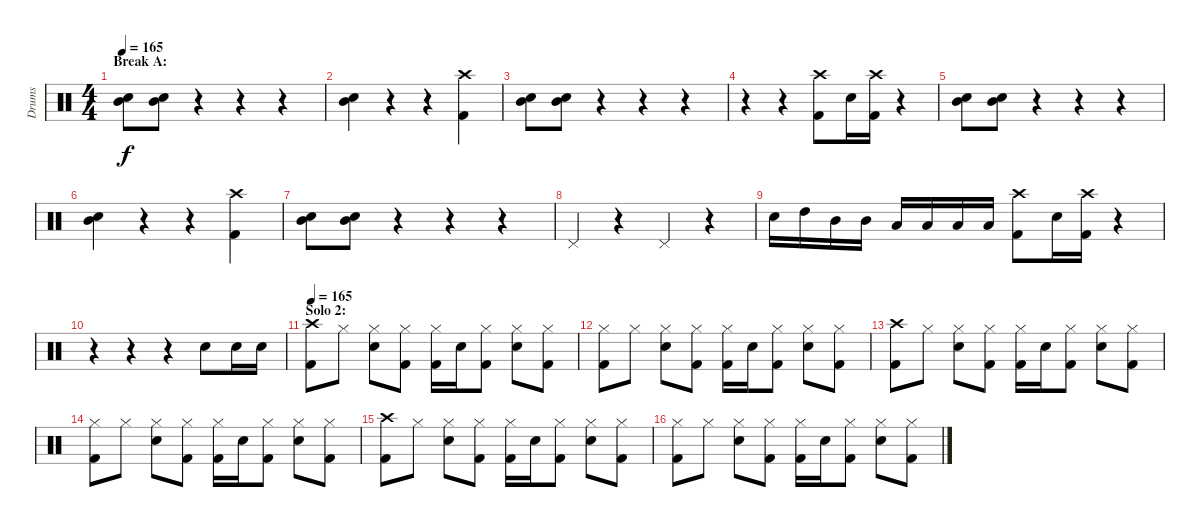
\track ("Drums" "Drums") {instrument percussion}
\staff {score}
\articulation defaults
\ts (4 4)
\section ("" "Break A:")
\tempo 165
\clef neutral
\ks c
("Mid Tom (hit)" "Snare (hit) 2").8{dy f} ("Mid Tom (hit)" "Snare (hit) 2").8 r.4 r.4 r.4 |
("Mid Tom (hit)" "Snare (hit) 2").4 r.4 r.4 ("Crash high (hit)" "Kick (hit) 2").4 |
("Mid Tom (hit)" "Snare (hit) 2").8 ("Mid Tom (hit)" "Snare (hit) 2").8 r.4 r.4 r.4 |
r.4 r.4 ("Crash high (hit)" "Kick (hit) 2").8 "Snare (hit) 2".16 ("Crash high (hit)" "Kick (hit) 2").16 r.4 |
("Mid Tom (hit)" "Snare (hit) 2").8 ("Mid Tom (hit)" "Snare (hit) 2").8 r.4 r.4 r.4 |
("Mid Tom (hit)" "Snare (hit) 2").4 r.4 r.4 ("Crash high (hit)" "Kick (hit) 2").4 |
("Mid Tom (hit)" "Snare (hit) 2").8 ("Mid Tom (hit)" "Snare (hit) 2").8 r.4 r.4 r.4 |
"Pedal Hi-Hat (hit)".4 r.4 "Pedal Hi-Hat (hit)".4 r.4 |
"Snare (hit) 2".16 "High Tom (hit)".16 "Mid Tom (hit)".16 "Mid Tom (hit)".16 "Low Tom (hit)".16 "Low Tom (hit)".16 "Low Tom (hit)".16 "Low Tom (hit)".16 ("Crash high (hit)" "Kick (hit) 2").8 "Snare (hit) 2".16 ("Crash high (hit)" "Kick (hit) 2").16 r.4 |
r.4 r.4 r.4 "Snare (hit) 2".8 "Snare (hit) 2".16 "Snare (hit) 2".16 |
\section ("" "Solo 2:")
\tempo 165
("Crash high (hit)" "Kick (hit) 2").8 "Hi-Hat (closed)".8 ("Hi-Hat (closed)" "Snare (hit) 2").8 ("Hi-Hat (closed)" "Kick (hit) 2").8 ("Hi-Hat (closed)" "Kick (hit) 2").16 "Snare (hit) 2".16 ("Hi-Hat (closed)" "Kick (hit) 2").8 ("Hi-Hat (closed)" "Snare (hit) 2").8 ("Hi-Hat (closed)" "Kick (hit) 2").8 |
("Hi-Hat (closed)" "Kick (hit) 2").8 "Hi-Hat (closed)".8 ("Hi-Hat (closed)" "Snare (hit) 2").8 ("Hi-Hat (closed)" "Kick (hit) 2").8 ("Hi-Hat (closed)" "Kick (hit) 2").16 "Snare (hit) 2".16 ("Hi-Hat (closed)" "Kick (hit) 2").8 ("Hi-Hat (closed)" "Snare (hit) 2").8 ("Hi-Hat (closed)" "Kick (hit) 2").8 |
("Crash high (hit)" "Kick (hit) 2").8 "Hi-Hat (closed)".8 ("Hi-Hat (closed)" "Snare (hit) 2").8 ("Hi-Hat (closed)" "Kick (hit) 2").8 ("Hi-Hat (closed)" "Kick (hit) 2").16 "Snare (hit) 2".16 ("Hi-Hat (closed)" "Kick (hit) 2").8 ("Hi-Hat (closed)" "Snare (hit) 2").8 ("Hi-Hat (closed)" "Kick (hit) 2").8 |
("Hi-Hat (closed)" "Kick (hit) 2").8 "Hi-Hat (closed)".8 ("Hi-Hat (closed)" "Snare (hit) 2").8 ("Hi-Hat (closed)" "Kick (hit) 2").8 ("Hi-Hat (closed)" "Kick (hit) 2").16 "Snare (hit) 2".16 ("Hi-Hat (closed)" "Kick (hit) 2").8 ("Hi-Hat (closed)" "Snare (hit) 2").8 ("Hi-Hat (closed)" "Kick (hit) 2").8 |
("Crash high (hit)" "Kick (hit) 2").8 "Hi-Hat (closed)".8 ("Hi-Hat (closed)" "Snare (hit) 2").8 ("Hi-Hat (closed)" "Kick (hit) 2").8 ("Hi-Hat (closed)" "Kick (hit) 2").16 "Snare (hit) 2".16 ("Hi-Hat (closed)" "Kick (hit) 2").8 ("Hi-Hat (closed)" "Snare (hit) 2").8 ("Hi-Hat (closed)" "Kick (hit) 2").8 |
("Hi-Hat (closed)" "Kick (hit) 2").8 "Hi-Hat (closed)".8 ("Hi-Hat (closed)" "Snare (hit) 2").8 ("Hi-Hat (closed)" "Kick (hit) 2").8 ("Hi-Hat (closed)" "Kick (hit) 2").16 "Snare (hit) 2".16 ("Hi-Hat (closed)" "Kick (hit) 2").8 ("Hi-Hat (closed)" "Snare (hit) 2").8 ("Hi-Hat (closed)" "Kick (hit) 2").8
